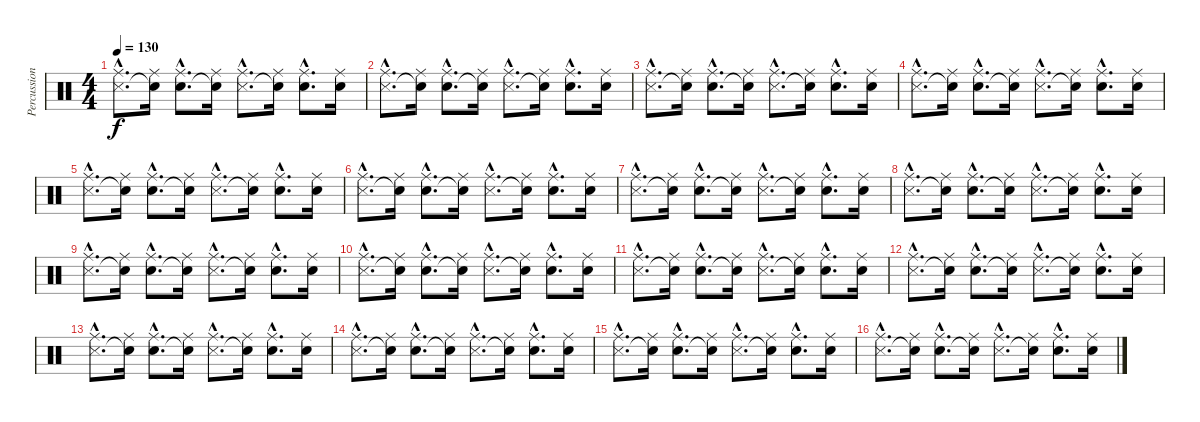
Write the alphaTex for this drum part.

\track ("Percussion" "Percussion") {instrument percussion}
\staff {score}
\articulation defaults
\ts (4 4)
\tempo 130
\clef neutral
\ks c
("Ride (middle)"{hac} "Snare (side stick) 3"{hac}).8{d dy f} ("Ride (middle)" "Snare (hit)"{t}).16 ("Ride (middle)"{hac} "Electric Snare (hit)"{hac}).8{d} ("Ride (middle)" "Snare (hit)"{t}).16 ("Ride (middle)"{hac} "Snare (side stick) 3"{hac}).8{d} ("Ride (middle)" "Snare (hit)"{t}).16 ("Ride (middle)"{hac} "Electric Snare (hit)"{hac}).8{d} ("Ride (middle)" "Electric Snare (hit)").16 |
("Ride (middle)"{hac} "Snare (side stick) 3"{hac}).8{d} ("Ride (middle)" "Snare (hit)"{t}).16 ("Ride (middle)"{hac} "Electric Snare (hit)"{hac}).8{d} ("Ride (middle)" "Snare (hit)"{t}).16 ("Ride (middle)"{hac} "Snare (side stick) 3"{hac}).8{d} ("Ride (middle)" "Snare (hit)"{t}).16 ("Ride (middle)"{hac} "Electric Snare (hit)"{hac}).8{d} ("Ride (middle)" "Electric Snare (hit)").16 |
("Ride (middle)"{hac} "Snare (side stick) 3"{hac}).8{d} ("Ride (middle)" "Snare (hit)"{t}).16 ("Ride (middle)"{hac} "Electric Snare (hit)"{hac}).8{d} ("Ride (middle)" "Snare (hit)"{t}).16 ("Ride (middle)"{hac} "Snare (side stick) 3"{hac}).8{d} ("Ride (middle)" "Snare (hit)"{t}).16 ("Ride (middle)"{hac} "Electric Snare (hit)"{hac}).8{d} ("Ride (middle)" "Electric Snare (hit)").16 |
("Ride (middle)"{hac} "Snare (side stick) 3"{hac}).8{d} ("Ride (middle)" "Snare (hit)"{t}).16 ("Ride (middle)"{hac} "Electric Snare (hit)"{hac}).8{d} ("Ride (middle)" "Snare (hit)"{t}).16 ("Ride (middle)"{hac} "Snare (side stick) 3"{hac}).8{d} ("Ride (middle)" "Snare (hit)"{t}).16 ("Ride (middle)"{hac} "Electric Snare (hit)"{hac}).8{d} ("Ride (middle)" "Electric Snare (hit)").16 |
("Ride (middle)"{hac} "Snare (side stick) 3"{hac}).8{d} ("Ride (middle)" "Snare (hit)"{t}).16 ("Ride (middle)"{hac} "Electric Snare (hit)"{hac}).8{d} ("Ride (middle)" "Snare (hit)"{t}).16 ("Ride (middle)"{hac} "Snare (side stick) 3"{hac}).8{d} ("Ride (middle)" "Snare (hit)"{t}).16 ("Ride (middle)"{hac} "Electric Snare (hit)"{hac}).8{d} ("Ride (middle)" "Electric Snare (hit)").16 |
("Ride (middle)"{hac} "Snare (side stick) 3"{hac}).8{d} ("Ride (middle)" "Snare (hit)"{t}).16 ("Ride (middle)"{hac} "Electric Snare (hit)"{hac}).8{d} ("Ride (middle)" "Snare (hit)"{t}).16 ("Ride (middle)"{hac} "Snare (side stick) 3"{hac}).8{d} ("Ride (middle)" "Snare (hit)"{t}).16 ("Ride (middle)"{hac} "Electric Snare (hit)"{hac}).8{d} ("Ride (middle)" "Electric Snare (hit)").16 |
("Ride (middle)"{hac} "Snare (side stick) 3"{hac}).8{d} ("Ride (middle)" "Snare (hit)"{t}).16 ("Ride (middle)"{hac} "Electric Snare (hit)"{hac}).8{d} ("Ride (middle)" "Snare (hit)"{t}).16 ("Ride (middle)"{hac} "Snare (side stick) 3"{hac}).8{d} ("Ride (middle)" "Snare (hit)"{t}).16 ("Ride (middle)"{hac} "Electric Snare (hit)"{hac}).8{d} ("Ride (middle)" "Electric Snare (hit)").16 |
("Ride (middle)"{hac} "Snare (side stick) 3"{hac}).8{d} ("Ride (middle)" "Snare (hit)"{t}).16 ("Ride (middle)"{hac} "Electric Snare (hit)"{hac}).8{d} ("Ride (middle)" "Snare (hit)"{t}).16 ("Ride (middle)"{hac} "Snare (side stick) 3"{hac}).8{d} ("Ride (middle)" "Snare (hit)"{t}).16 ("Ride (middle)"{hac} "Electric Snare (hit)"{hac}).8{d} ("Ride (middle)" "Electric Snare (hit)").16 |
("Ride (middle)"{hac} "Snare (side stick) 3"{hac}).8{d} ("Ride (middle)" "Snare (hit)"{t}).16 ("Ride (middle)"{hac} "Electric Snare (hit)"{hac}).8{d} ("Ride (middle)" "Snare (hit)"{t}).16 ("Ride (middle)"{hac} "Snare (side stick) 3"{hac}).8{d} ("Ride (middle)" "Snare (hit)"{t}).16 ("Ride (middle)"{hac} "Electric Snare (hit)"{hac}).8{d} ("Ride (middle)" "Electric Snare (hit)").16 |
("Ride (middle)"{hac} "Snare (side stick) 3"{hac}).8{d} ("Ride (middle)" "Snare (hit)"{t}).16 ("Ride (middle)"{hac} "Electric Snare (hit)"{hac}).8{d} ("Ride (middle)" "Snare (hit)"{t}).16 ("Ride (middle)"{hac} "Snare (side stick) 3"{hac}).8{d} ("Ride (middle)" "Snare (hit)"{t}).16 ("Ride (middle)"{hac} "Electric Snare (hit)"{hac}).8{d} ("Ride (middle)" "Electric Snare (hit)").16 |
("Ride (middle)"{hac} "Snare (side stick) 3"{hac}).8{d} ("Ride (middle)" "Snare (hit)"{t}).16 ("Ride (middle)"{hac} "Electric Snare (hit)"{hac}).8{d} ("Ride (middle)" "Snare (hit)"{t}).16 ("Ride (middle)"{hac} "Snare (side stick) 3"{hac}).8{d} ("Ride (middle)" "Snare (hit)"{t}).16 ("Ride (middle)"{hac} "Electric Snare (hit)"{hac}).8{d} ("Ride (middle)" "Electric Snare (hit)").16 |
("Ride (middle)"{hac} "Snare (side stick) 3"{hac}).8{d} ("Ride (middle)" "Snare (hit)"{t}).16 ("Ride (middle)"{hac} "Electric Snare (hit)"{hac}).8{d} ("Ride (middle)" "Snare (hit)"{t}).16 ("Ride (middle)"{hac} "Snare (side stick) 3"{hac}).8{d} ("Ride (middle)" "Snare (hit)"{t}).16 ("Ride (middle)"{hac} "Electric Snare (hit)"{hac}).8{d} ("Ride (middle)" "Electric Snare (hit)").16 |
("Ride (middle)"{hac} "Snare (side stick) 3"{hac}).8{d} ("Ride (middle)" "Snare (hit)"{t}).16 ("Ride (middle)"{hac} "Electric Snare (hit)"{hac}).8{d} ("Ride (middle)" "Snare (hit)"{t}).16 ("Ride (middle)"{hac} "Snare (side stick) 3"{hac}).8{d} ("Ride (middle)" "Snare (hit)"{t}).16 ("Ride (middle)"{hac} "Electric Snare (hit)"{hac}).8{d} ("Ride (middle)" "Electric Snare (hit)").16 |
("Ride (middle)"{hac} "Snare (side stick) 3"{hac}).8{d} ("Ride (middle)" "Snare (hit)"{t}).16 ("Ride (middle)"{hac} "Electric Snare (hit)"{hac}).8{d} ("Ride (middle)" "Snare (hit)"{t}).16 ("Ride (middle)"{hac} "Snare (side stick) 3"{hac}).8{d} ("Ride (middle)" "Snare (hit)"{t}).16 ("Ride (middle)"{hac} "Electric Snare (hit)"{hac}).8{d} ("Ride (middle)" "Electric Snare (hit)").16 |
("Ride (middle)"{hac} "Snare (side stick) 3"{hac}).8{d} ("Ride (middle)" "Snare (hit)"{t}).16 ("Ride (middle)"{hac} "Electric Snare (hit)"{hac}).8{d} ("Ride (middle)" "Snare (hit)"{t}).16 ("Ride (middle)"{hac} "Snare (side stick) 3"{hac}).8{d} ("Ride (middle)" "Snare (hit)"{t}).16 ("Ride (middle)"{hac} "Electric Snare (hit)"{hac}).8{d} ("Ride (middle)" "Electric Snare (hit)").16 |
("Ride (middle)"{hac} "Snare (side stick) 3"{hac}).8{d} ("Ride (middle)" "Snare (hit)"{t}).16 ("Ride (middle)"{hac} "Electric Snare (hit)"{hac}).8{d} ("Ride (middle)" "Snare (hit)"{t}).16 ("Ride (middle)"{hac} "Snare (side stick) 3"{hac}).8{d} ("Ride (middle)" "Snare (hit)"{t}).16 ("Ride (middle)"{hac} "Electric Snare (hit)"{hac}).8{d} ("Ride (middle)" "Electric Snare (hit)").16
